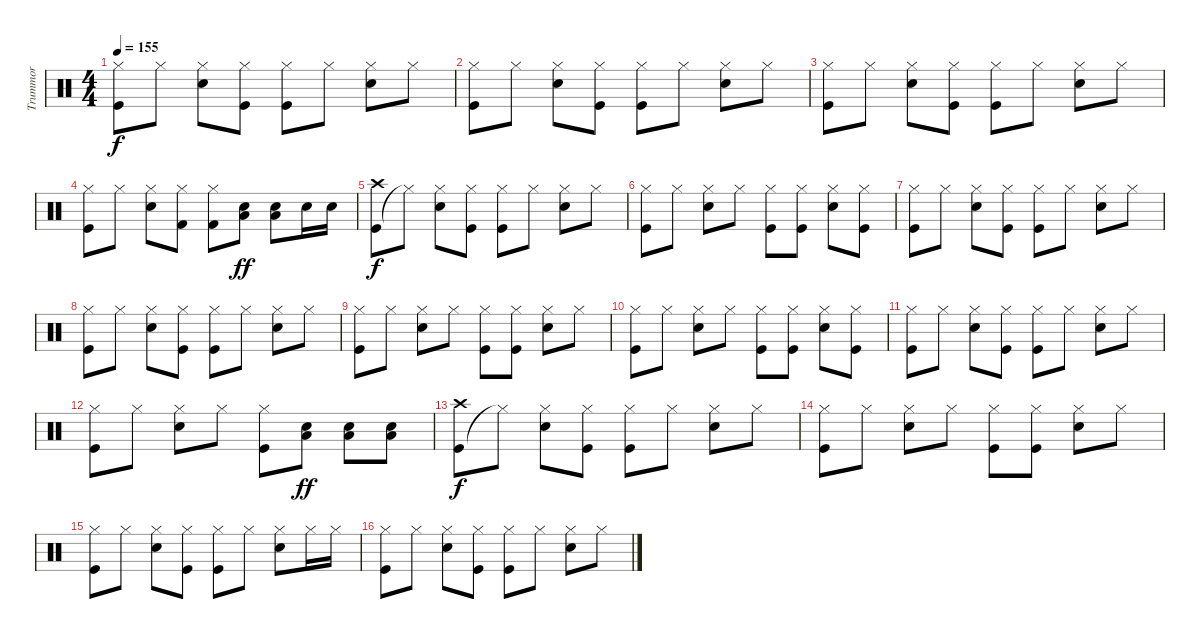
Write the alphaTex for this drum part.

\track ("Trummor" "Trummor") {instrument percussion}
\staff {score}
\articulation defaults
\ts (4 4)
\tempo 155
\clef neutral
\ks c
("Kick (hit)" "Hi-Hat (closed)").8{dy f} "Hi-Hat (closed)".8 ("Snare (hit) 2" "Hi-Hat (closed)").8 ("Kick (hit)" "Hi-Hat (closed)").8 ("Kick (hit)" "Hi-Hat (closed)").8 "Hi-Hat (closed)".8 ("Snare (hit) 2" "Hi-Hat (closed)").8 "Hi-Hat (closed)".8 |
("Kick (hit)" "Hi-Hat (closed)").8 "Hi-Hat (closed)".8 ("Snare (hit) 2" "Hi-Hat (closed)").8 ("Kick (hit)" "Hi-Hat (closed)").8 ("Kick (hit)" "Hi-Hat (closed)").8 "Hi-Hat (closed)".8 ("Snare (hit) 2" "Hi-Hat (closed)").8 "Hi-Hat (closed)".8 |
("Kick (hit)" "Hi-Hat (closed)").8 "Hi-Hat (closed)".8 ("Snare (hit) 2" "Hi-Hat (closed)").8 ("Kick (hit)" "Hi-Hat (closed)").8 ("Kick (hit)" "Hi-Hat (closed)").8 "Hi-Hat (closed)".8 ("Snare (hit) 2" "Hi-Hat (closed)").8 "Hi-Hat (closed)".8 |
("Kick (hit)" "Hi-Hat (closed)").8 "Hi-Hat (closed)".8 ("Snare (hit) 2" "Hi-Hat (closed)").8 ("Kick (hit) 2" "Hi-Hat (closed)").8 ("Kick (hit) 2" "Hi-Hat (closed)").8 ("Snare (hit) 2" "Low Floor Tom (hit)").8{dy ff} ("Snare (hit) 2" "Low Floor Tom (hit)").8 "Snare (hit) 2".16 "Snare (hit) 2".16 |
("Kick (hit)" "Crash high (hit)").8{dy f} "Hi-Hat (closed)"{t}.8 ("Snare (hit) 2" "Hi-Hat (closed)").8 ("Kick (hit)" "Hi-Hat (closed)").8 ("Kick (hit)" "Hi-Hat (closed)").8 "Hi-Hat (closed)".8 ("Snare (hit) 2" "Hi-Hat (closed)").8 "Hi-Hat (closed)".8 |
("Kick (hit)" "Hi-Hat (closed)").8 "Hi-Hat (closed)".8 ("Snare (hit) 2" "Hi-Hat (closed)").8 "Hi-Hat (closed)".8 ("Kick (hit)" "Hi-Hat (closed)").8 ("Kick (hit)" "Hi-Hat (closed)").8 ("Snare (hit) 2" "Hi-Hat (closed)").8 ("Kick (hit)" "Hi-Hat (closed)").8 |
("Kick (hit)" "Hi-Hat (closed)").8 "Hi-Hat (closed)".8 ("Snare (hit) 2" "Hi-Hat (closed)").8 ("Kick (hit)" "Hi-Hat (closed)").8 ("Kick (hit)" "Hi-Hat (closed)").8 "Hi-Hat (closed)".8 ("Snare (hit) 2" "Hi-Hat (closed)").8 "Hi-Hat (closed)".8 |
("Kick (hit)" "Hi-Hat (closed)").8 "Hi-Hat (closed)".8 ("Snare (hit) 2" "Hi-Hat (closed)").8 ("Kick (hit)" "Hi-Hat (closed)").8 ("Kick (hit)" "Hi-Hat (closed)").8 "Hi-Hat (closed)".8 ("Snare (hit) 2" "Hi-Hat (closed)").8 "Hi-Hat (closed)".8 |
("Kick (hit)" "Hi-Hat (closed)").8 "Hi-Hat (closed)".8 ("Snare (hit) 2" "Hi-Hat (closed)").8 "Hi-Hat (closed)".8 ("Kick (hit)" "Hi-Hat (closed)").8 ("Kick (hit)" "Hi-Hat (closed)").8 ("Snare (hit) 2" "Hi-Hat (closed)").8 "Hi-Hat (closed)".8 |
("Kick (hit)" "Hi-Hat (closed)").8 "Hi-Hat (closed)".8 ("Snare (hit) 2" "Hi-Hat (closed)").8 "Hi-Hat (closed)".8 ("Kick (hit)" "Hi-Hat (closed)").8 ("Kick (hit)" "Hi-Hat (closed)").8 ("Snare (hit) 2" "Hi-Hat (closed)").8 ("Kick (hit)" "Hi-Hat (closed)").8 |
("Kick (hit)" "Hi-Hat (closed)").8 "Hi-Hat (closed)".8 ("Snare (hit) 2" "Hi-Hat (closed)").8 ("Kick (hit)" "Hi-Hat (closed)").8 ("Kick (hit)" "Hi-Hat (closed)").8 "Hi-Hat (closed)".8 ("Snare (hit) 2" "Hi-Hat (closed)").8 "Hi-Hat (closed)".8 |
("Kick (hit)" "Hi-Hat (closed)").8 "Hi-Hat (closed)".8 ("Snare (hit) 2" "Hi-Hat (closed)").8 "Hi-Hat (closed)".8 ("Kick (hit)" "Hi-Hat (closed)").8 ("Snare (hit) 2" "Low Floor Tom (hit)").8{dy ff} ("Snare (hit) 2" "Low Floor Tom (hit)").8 ("Snare (hit) 2" "Low Floor Tom (hit)").8 |
("Kick (hit)" "Crash high (hit)").8{dy f} "Hi-Hat (closed)"{t}.8 ("Snare (hit) 2" "Hi-Hat (closed)").8 ("Kick (hit)" "Hi-Hat (closed)").8 ("Kick (hit)" "Hi-Hat (closed)").8 "Hi-Hat (closed)".8 ("Snare (hit) 2" "Hi-Hat (closed)").8 "Hi-Hat (closed)".8 |
("Kick (hit)" "Hi-Hat (closed)").8 "Hi-Hat (closed)".8 ("Snare (hit) 2" "Hi-Hat (closed)").8 "Hi-Hat (closed)".8 ("Kick (hit)" "Hi-Hat (closed)").8 ("Kick (hit)" "Hi-Hat (closed)").8 ("Snare (hit) 2" "Hi-Hat (closed)").8 "Hi-Hat (closed)".8 |
("Kick (hit)" "Hi-Hat (closed)").8 "Hi-Hat (closed)".8 ("Snare (hit) 2" "Hi-Hat (closed)").8 ("Kick (hit)" "Hi-Hat (closed)").8 ("Kick (hit)" "Hi-Hat (closed)").8 "Hi-Hat (closed)".8 ("Snare (hit) 2" "Hi-Hat (closed)").8 "Hi-Hat (closed)".16 "Hi-Hat (closed)".16 |
("Kick (hit)" "Hi-Hat (closed)").8 "Hi-Hat (closed)".8 ("Snare (hit) 2" "Hi-Hat (closed)").8 ("Kick (hit)" "Hi-Hat (closed)").8 ("Kick (hit)" "Hi-Hat (closed)").8 "Hi-Hat (closed)".8 ("Snare (hit) 2" "Hi-Hat (closed)").8 "Hi-Hat (closed)".8
